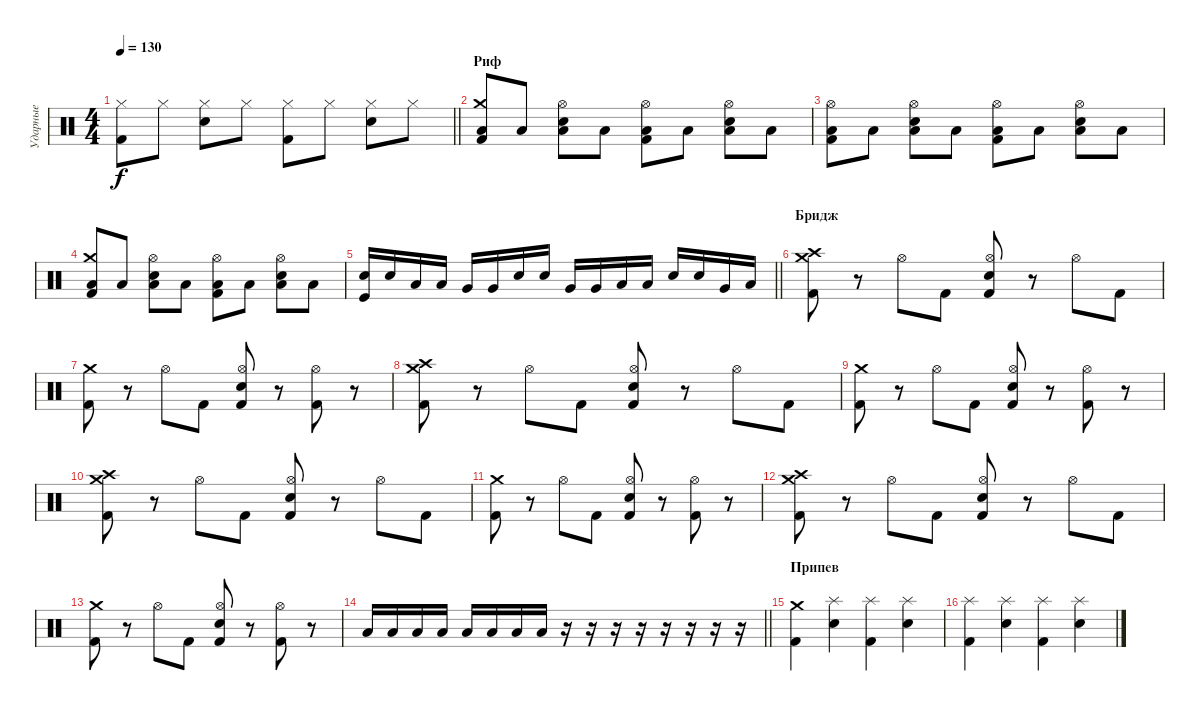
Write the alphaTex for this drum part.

\track ("Ударные" "Ударные") {instrument percussion}
\staff {score}
\articulation defaults
\ts (4 4)
\tempo 130
\clef neutral
\barLineRight lightlight
\ks c
("Hi-Hat (closed)" "Kick (hit) 2").8{dy f} "Hi-Hat (closed)".8 ("Hi-Hat (closed)" "Electric Snare (hit)").8 "Hi-Hat (closed)".8 ("Hi-Hat (closed)" "Kick (hit) 2").8 "Hi-Hat (closed)".8 ("Hi-Hat (closed)" "Electric Snare (hit)").8 "Hi-Hat (closed)".8 |
\section ("" "Риф")
("Crash medium (hit)" "Kick (hit) 2" "Low Tom (hit)").8 "Low Tom (hit)".8 ("Hi-Hat (open)" "Electric Snare (hit)" "Low Tom (hit)").8 "Low Tom (hit)".8 ("Hi-Hat (open)" "Kick (hit) 2" "Low Tom (hit)").8 "Low Tom (hit)".8 ("Hi-Hat (open)" "Electric Snare (hit)" "Low Tom (hit)").8 "Low Tom (hit)".8 |
("Hi-Hat (open)" "Kick (hit) 2" "Low Tom (hit)").8 "Low Tom (hit)".8 ("Hi-Hat (open)" "Electric Snare (hit)" "Low Tom (hit)").8 "Low Tom (hit)".8 ("Hi-Hat (open)" "Kick (hit) 2" "Low Tom (hit)").8 "Low Tom (hit)".8 ("Hi-Hat (open)" "Electric Snare (hit)" "Low Tom (hit)").8 "Low Tom (hit)".8 |
("Crash medium (hit)" "Kick (hit) 2" "Low Tom (hit)").8 "Low Tom (hit)".8 ("Hi-Hat (open)" "Electric Snare (hit)" "Low Tom (hit)").8 "Low Tom (hit)".8 ("Hi-Hat (open)" "Kick (hit) 2" "Low Tom (hit)").8 "Low Tom (hit)".8 ("Hi-Hat (open)" "Electric Snare (hit)" "Low Tom (hit)").8 "Low Tom (hit)".8 |
\barLineRight lightlight
("Electric Snare (hit)" "Kick (hit)").16 "Electric Snare (hit)".16 "Low Tom (hit)".16 "Low Tom (hit)".16 "Very Low Tom (hit)".16 "Very Low Tom (hit)".16 "Electric Snare (hit)".16 "Electric Snare (hit)".16 "Very Low Tom (hit)".16 "Very Low Tom (hit)".16 "Low Floor Tom (hit)".16 "Low Floor Tom (hit)".16 "Electric Snare (hit)".16 "Electric Snare (hit)".16 "Very Low Tom (hit)".16 "Low Floor Tom (hit)".16 |
\section ("" "Бридж")
("Crash medium (hit)" "Crash high (hit)" "Kick (hit) 2").8 r.8 "Hi-Hat (open)".8 "Kick (hit) 2".8 ("Hi-Hat (open)" "Snare (hit) 2" "Kick (hit) 2").8 r.8 "Hi-Hat (open)".8 "Kick (hit) 2".8 |
("Crash medium (hit)" "Kick (hit) 2").8 r.8 "Hi-Hat (open)".8 "Kick (hit) 2".8 ("Hi-Hat (open)" "Snare (hit) 2" "Kick (hit) 2").8 r.8 ("Hi-Hat (open)" "Kick (hit) 2").8 r.8 |
("Crash medium (hit)" "Crash high (hit)" "Kick (hit) 2").8 r.8 "Hi-Hat (open)".8 "Kick (hit) 2".8 ("Hi-Hat (open)" "Snare (hit) 2" "Kick (hit) 2").8 r.8 "Hi-Hat (open)".8 "Kick (hit) 2".8 |
("Crash medium (hit)" "Kick (hit) 2").8 r.8 "Hi-Hat (open)".8 "Kick (hit) 2".8 ("Hi-Hat (open)" "Snare (hit) 2" "Kick (hit) 2").8 r.8 ("Hi-Hat (open)" "Kick (hit) 2").8 r.8 |
("Crash medium (hit)" "Crash high (hit)" "Kick (hit) 2").8 r.8 "Hi-Hat (open)".8 "Kick (hit) 2".8 ("Hi-Hat (open)" "Snare (hit) 2" "Kick (hit) 2").8 r.8 "Hi-Hat (open)".8 "Kick (hit) 2".8 |
("Crash medium (hit)" "Kick (hit) 2").8 r.8 "Hi-Hat (open)".8 "Kick (hit) 2".8 ("Hi-Hat (open)" "Snare (hit) 2" "Kick (hit) 2").8 r.8 ("Hi-Hat (open)" "Kick (hit) 2").8 r.8 |
("Crash medium (hit)" "Crash high (hit)" "Kick (hit) 2").8 r.8 "Hi-Hat (open)".8 "Kick (hit) 2".8 ("Hi-Hat (open)" "Snare (hit) 2" "Kick (hit) 2").8 r.8 "Hi-Hat (open)".8 "Kick (hit) 2".8 |
("Crash medium (hit)" "Kick (hit) 2").8 r.8 "Hi-Hat (open)".8 "Kick (hit) 2".8 ("Hi-Hat (open)" "Snare (hit) 2" "Kick (hit) 2").8 r.8 ("Hi-Hat (open)" "Kick (hit) 2").8 r.8 |
\barLineRight lightlight "Low Tom (hit)".16 "Low Tom (hit)".16 "Low Tom (hit)".16 "Low Tom (hit)".16 "Low Tom (hit)".16 "Low Tom (hit)".16 "Low Tom (hit)".16 "Low Tom (hit)".16
r.16 r.16 r.16 r.16 r.16 r.16 r.16 r.16 |
\section ("" "Припев")
("Kick (hit) 2" "Crash medium (hit)").4 ("Electric Snare (hit)" "Splash (hit)").4 ("Kick (hit) 2" "Splash (hit)").4 ("Electric Snare (hit)" "Splash (hit)").4 |
("Kick (hit) 2" "Splash (hit)").4 ("Electric Snare (hit)" "Splash (hit)").4 ("Kick (hit) 2" "Splash (hit)").4 ("Electric Snare (hit)" "Splash (hit)").4
